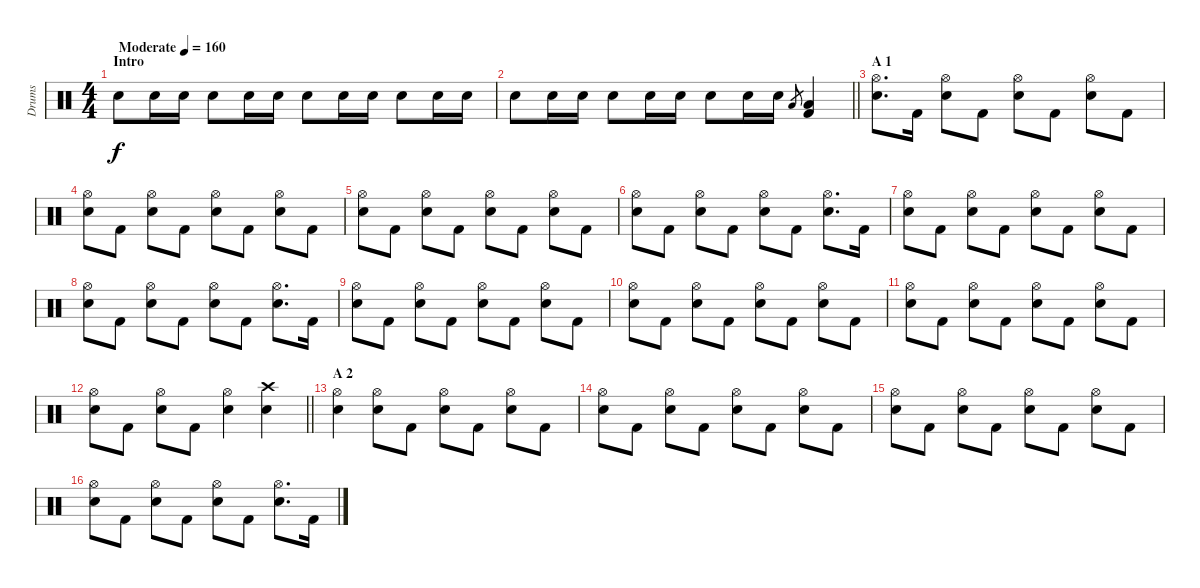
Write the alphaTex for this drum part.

\track ("Drums" "Drums") {instrument percussion}
\staff {score}
\articulation defaults
\ts (4 4)
\section ("" "Intro")
\tempo (160 "Moderate")
\clef neutral
\ks c "Snare (hit) 2".8{dy f} "Snare (hit) 2".16 "Snare (hit) 2".16 "Snare (hit) 2".8 "Snare (hit) 2".16 "Snare (hit) 2".16 "Snare (hit) 2".8 "Snare (hit) 2".16 "Snare (hit) 2".16 "Snare (hit) 2".8 "Snare (hit) 2".16 "Snare (hit) 2".16
|
\barLineRight lightlight "Snare (hit) 2".8 "Snare (hit) 2".16 "Snare (hit) 2".16 "Snare (hit) 2".8 "Snare (hit) 2".16 "Snare (hit) 2".16 "Snare (hit) 2".8 "Snare (hit) 2".16 "Snare (hit) 2".16 "Low Tom (hit)".8{gr}
("Low Tom (hit)" "Kick (hit) 2").4 |
\section ("" "A 1")
("Hi-Hat (open)" "Snare (hit) 2").8{d} "Kick (hit) 2".16 ("Hi-Hat (open)" "Snare (hit) 2").8 "Kick (hit) 2".8 ("Hi-Hat (open)" "Snare (hit) 2").8 "Kick (hit) 2".8 ("Hi-Hat (open)" "Snare (hit) 2").8 "Kick (hit) 2".8 |
("Hi-Hat (open)" "Snare (hit) 2").8 "Kick (hit) 2".8 ("Hi-Hat (open)" "Snare (hit) 2").8 "Kick (hit) 2".8 ("Hi-Hat (open)" "Snare (hit) 2").8 "Kick (hit) 2".8 ("Hi-Hat (open)" "Snare (hit) 2").8 "Kick (hit) 2".8 |
("Hi-Hat (open)" "Snare (hit) 2").8 "Kick (hit) 2".8 ("Hi-Hat (open)" "Snare (hit) 2").8 "Kick (hit) 2".8 ("Hi-Hat (open)" "Snare (hit) 2").8 "Kick (hit) 2".8 ("Hi-Hat (open)" "Snare (hit) 2").8 "Kick (hit) 2".8 |
("Hi-Hat (open)" "Snare (hit) 2").8 "Kick (hit) 2".8 ("Hi-Hat (open)" "Snare (hit) 2").8 "Kick (hit) 2".8 ("Hi-Hat (open)" "Snare (hit) 2").8 "Kick (hit) 2".8 ("Hi-Hat (open)" "Snare (hit) 2").8{d} "Kick (hit) 2".16 |
("Hi-Hat (open)" "Snare (hit) 2").8 "Kick (hit) 2".8 ("Hi-Hat (open)" "Snare (hit) 2").8 "Kick (hit) 2".8 ("Hi-Hat (open)" "Snare (hit) 2").8 "Kick (hit) 2".8 ("Hi-Hat (open)" "Snare (hit) 2").8 "Kick (hit) 2".8 |
("Hi-Hat (open)" "Snare (hit) 2").8 "Kick (hit) 2".8 ("Hi-Hat (open)" "Snare (hit) 2").8 "Kick (hit) 2".8 ("Hi-Hat (open)" "Snare (hit) 2").8 "Kick (hit) 2".8 ("Hi-Hat (open)" "Snare (hit) 2").8{d} "Kick (hit) 2".16 |
("Hi-Hat (open)" "Snare (hit) 2").8 "Kick (hit) 2".8 ("Hi-Hat (open)" "Snare (hit) 2").8 "Kick (hit) 2".8 ("Hi-Hat (open)" "Snare (hit) 2").8 "Kick (hit) 2".8 ("Hi-Hat (open)" "Snare (hit) 2").8 "Kick (hit) 2".8 |
("Hi-Hat (open)" "Snare (hit) 2").8 "Kick (hit) 2".8 ("Hi-Hat (open)" "Snare (hit) 2").8 "Kick (hit) 2".8 ("Hi-Hat (open)" "Snare (hit) 2").8 "Kick (hit) 2".8 ("Hi-Hat (open)" "Snare (hit) 2").8 "Kick (hit) 2".8 |
("Hi-Hat (open)" "Snare (hit) 2").8 "Kick (hit) 2".8 ("Hi-Hat (open)" "Snare (hit) 2").8 "Kick (hit) 2".8 ("Hi-Hat (open)" "Snare (hit) 2").8 "Kick (hit) 2".8 ("Hi-Hat (open)" "Snare (hit) 2").8 "Kick (hit) 2".8 |
\barLineRight lightlight
("Hi-Hat (open)" "Snare (hit) 2").8 "Kick (hit) 2".8 ("Hi-Hat (open)" "Snare (hit) 2").8 "Kick (hit) 2".8 ("Hi-Hat (open)" "Snare (hit) 2").4 ("Crash high (hit)" "Snare (hit) 2").4 |
\section ("" "A 2")
("Hi-Hat (open)" "Snare (hit) 2").4 ("Hi-Hat (open)" "Snare (hit) 2").8 "Kick (hit) 2".8 ("Hi-Hat (open)" "Snare (hit) 2").8 "Kick (hit) 2".8 ("Hi-Hat (open)" "Snare (hit) 2").8 "Kick (hit) 2".8 |
("Hi-Hat (open)" "Snare (hit) 2").8 "Kick (hit) 2".8 ("Hi-Hat (open)" "Snare (hit) 2").8 "Kick (hit) 2".8 ("Hi-Hat (open)" "Snare (hit) 2").8 "Kick (hit) 2".8 ("Hi-Hat (open)" "Snare (hit) 2").8 "Kick (hit) 2".8 |
("Hi-Hat (open)" "Snare (hit) 2").8 "Kick (hit) 2".8 ("Hi-Hat (open)" "Snare (hit) 2").8 "Kick (hit) 2".8 ("Hi-Hat (open)" "Snare (hit) 2").8 "Kick (hit) 2".8 ("Hi-Hat (open)" "Snare (hit) 2").8 "Kick (hit) 2".8 |
("Hi-Hat (open)" "Snare (hit) 2").8 "Kick (hit) 2".8 ("Hi-Hat (open)" "Snare (hit) 2").8 "Kick (hit) 2".8 ("Hi-Hat (open)" "Snare (hit) 2").8 "Kick (hit) 2".8 ("Hi-Hat (open)" "Snare (hit) 2").8{d} "Kick (hit) 2".16
